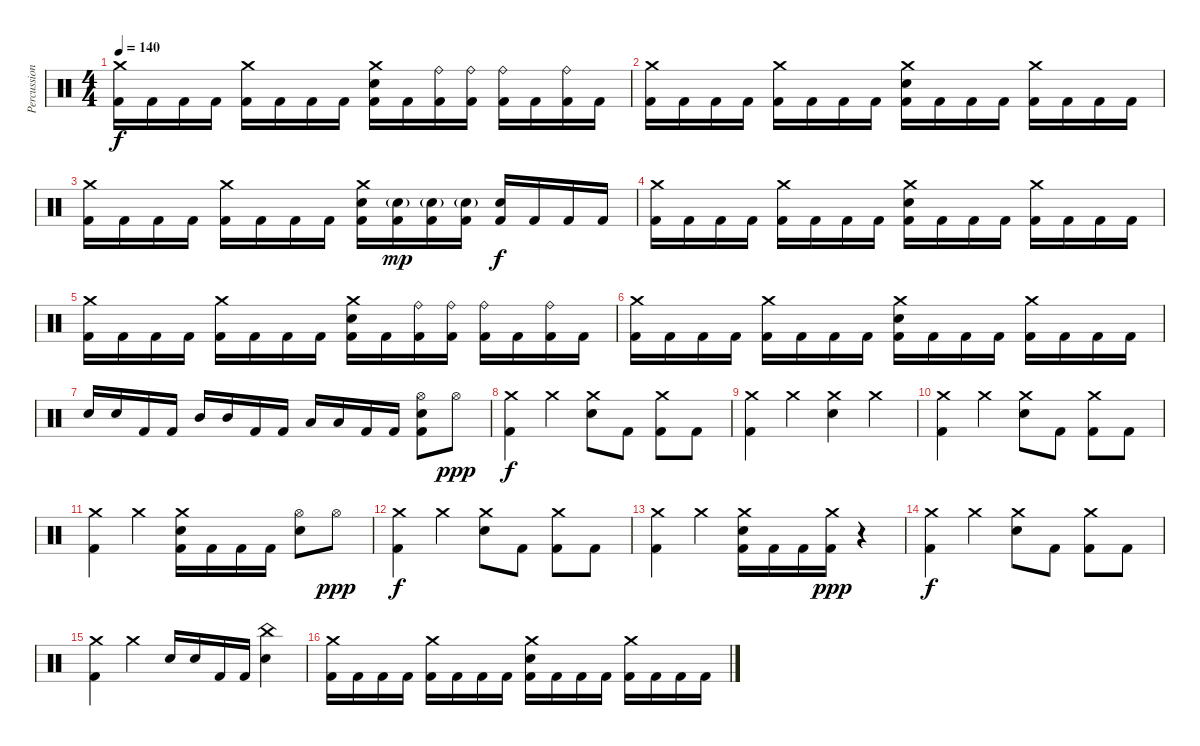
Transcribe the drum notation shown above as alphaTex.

\track ("Percussion" "Percussion") {instrument percussion}
\staff {score}
\articulation defaults
\ts (4 4)
\tempo 140
\clef neutral
\ks c
("Crash medium (hit)" "Kick (hit) 2").16{dy f} "Kick (hit) 2".16 "Kick (hit) 2".16 "Kick (hit) 2".16 ("Crash medium (hit)" "Kick (hit) 2").16 "Kick (hit) 2".16 "Kick (hit) 2".16 "Kick (hit) 2".16 ("Crash medium (hit)" "Electric Snare (hit)" "Kick (hit) 2").16 "Kick (hit) 2".16 ("Ride (bell)" "Kick (hit) 2").16 ("Ride (bell)" "Kick (hit) 2").16 ("Ride (bell)" "Kick (hit) 2").16 "Kick (hit) 2".16 ("Ride (bell)" "Kick (hit) 2").16 "Kick (hit) 2".16 |
("Crash medium (hit)" "Kick (hit) 2").16 "Kick (hit) 2".16 "Kick (hit) 2".16 "Kick (hit) 2".16 ("Crash medium (hit)" "Kick (hit) 2").16 "Kick (hit) 2".16 "Kick (hit) 2".16 "Kick (hit) 2".16 ("Crash medium (hit)" "Electric Snare (hit)" "Kick (hit) 2").16 "Kick (hit) 2".16 "Kick (hit) 2".16 "Kick (hit) 2".16 ("Crash medium (hit)" "Kick (hit) 2").16 "Kick (hit) 2".16 "Kick (hit) 2".16 "Kick (hit) 2".16 |
("Crash medium (hit)" "Kick (hit) 2").16 "Kick (hit) 2".16 "Kick (hit) 2".16 "Kick (hit) 2".16 ("Crash medium (hit)" "Kick (hit) 2").16 "Kick (hit) 2".16 "Kick (hit) 2".16 "Kick (hit) 2".16 ("Crash medium (hit)" "Electric Snare (hit)" "Kick (hit) 2").16 ("Electric Snare (hit)"{g} "Kick (hit) 2").16{dy mp} ("Electric Snare (hit)"{g} "Kick (hit) 2").16 ("Electric Snare (hit)"{g} "Kick (hit) 2").16 ("Electric Snare (hit)" "Kick (hit) 2").16{dy f} "Kick (hit) 2".16 "Kick (hit) 2".16 "Kick (hit) 2".16 |
("Crash medium (hit)" "Kick (hit) 2").16 "Kick (hit) 2".16 "Kick (hit) 2".16 "Kick (hit) 2".16 ("Crash medium (hit)" "Kick (hit) 2").16 "Kick (hit) 2".16 "Kick (hit) 2".16 "Kick (hit) 2".16 ("Crash medium (hit)" "Electric Snare (hit)" "Kick (hit) 2").16 "Kick (hit) 2".16 "Kick (hit) 2".16 "Kick (hit) 2".16 ("Crash medium (hit)" "Kick (hit) 2").16 "Kick (hit) 2".16 "Kick (hit) 2".16 "Kick (hit) 2".16 |
("Crash medium (hit)" "Kick (hit) 2").16 "Kick (hit) 2".16 "Kick (hit) 2".16 "Kick (hit) 2".16 ("Crash medium (hit)" "Kick (hit) 2").16 "Kick (hit) 2".16 "Kick (hit) 2".16 "Kick (hit) 2".16 ("Crash medium (hit)" "Electric Snare (hit)" "Kick (hit) 2").16 "Kick (hit) 2".16 ("Ride (bell)" "Kick (hit) 2").16 ("Ride (bell)" "Kick (hit) 2").16 ("Ride (bell)" "Kick (hit) 2").16 "Kick (hit) 2".16 ("Ride (bell)" "Kick (hit) 2").16 "Kick (hit) 2".16 |
("Crash medium (hit)" "Kick (hit) 2").16 "Kick (hit) 2".16 "Kick (hit) 2".16 "Kick (hit) 2".16 ("Crash medium (hit)" "Kick (hit) 2").16 "Kick (hit) 2".16 "Kick (hit) 2".16 "Kick (hit) 2".16 ("Crash medium (hit)" "Electric Snare (hit)" "Kick (hit) 2").16 "Kick (hit) 2".16 "Kick (hit) 2".16 "Kick (hit) 2".16 ("Crash medium (hit)" "Kick (hit) 2").16 "Kick (hit) 2".16 "Kick (hit) 2".16 "Kick (hit) 2".16 |
"Electric Snare (hit)".16 "Electric Snare (hit)".16 "Kick (hit) 2".16 "Kick (hit) 2".16 "Mid Tom (hit)".16 "Mid Tom (hit)".16 "Kick (hit) 2".16 "Kick (hit) 2".16 "Low Tom (hit)".16 "Low Tom (hit)".16 "Kick (hit) 2".16 "Kick (hit) 2".16 ("Hi-Hat (open)" "Electric Snare (hit)" "Kick (hit) 2").8 "Hi-Hat (open)".8{dy ppp} |
("Crash medium (hit)" "Kick (hit) 2").4{dy f} "Crash medium (hit)".4 ("Crash medium (hit)" "Electric Snare (hit)").8 "Kick (hit) 2".8 ("Crash medium (hit)" "Kick (hit) 2").8 "Kick (hit) 2".8 |
("Crash medium (hit)" "Kick (hit) 2").4 "Crash medium (hit)".4 ("Crash medium (hit)" "Electric Snare (hit)").4 "Crash medium (hit)".4 |
("Crash medium (hit)" "Kick (hit) 2").4 "Crash medium (hit)".4 ("Crash medium (hit)" "Electric Snare (hit)").8 "Kick (hit) 2".8 ("Crash medium (hit)" "Kick (hit) 2").8 "Kick (hit) 2".8 |
("Crash medium (hit)" "Kick (hit) 2").4 "Crash medium (hit)".4 ("Crash medium (hit)" "Electric Snare (hit)" "Kick (hit) 2").16 "Kick (hit) 2".16 "Kick (hit) 2".16 "Kick (hit) 2".16 ("Hi-Hat (open)" "Electric Snare (hit)").8 "Hi-Hat (open)".8{dy ppp} |
("Crash medium (hit)" "Kick (hit) 2").4{dy f} "Crash medium (hit)".4 ("Crash medium (hit)" "Electric Snare (hit)").8 "Kick (hit) 2".8 ("Crash medium (hit)" "Kick (hit) 2").8 "Kick (hit) 2".8 |
("Crash medium (hit)" "Kick (hit) 2").4 "Crash medium (hit)".4 ("Crash medium (hit)" "Electric Snare (hit)" "Kick (hit) 2").16 "Kick (hit) 2".16 "Kick (hit) 2".16 ("Crash medium (hit)" "Kick (hit) 2").16{dy ppp} r.4 |
("Crash medium (hit)" "Kick (hit) 2").4{dy f} "Crash medium (hit)".4 ("Crash medium (hit)" "Electric Snare (hit)").8 "Kick (hit) 2".8 ("Crash medium (hit)" "Kick (hit) 2").8 "Kick (hit) 2".8 |
("Crash medium (hit)" "Kick (hit) 2").4 "Crash medium (hit)".4 "Electric Snare (hit)".16 "Electric Snare (hit)".16 "Kick (hit) 2".16 "Kick (hit) 2".16 ("China (hit)" "Electric Snare (hit)").4 |
("Crash medium (hit)" "Kick (hit) 2").16 "Kick (hit) 2".16 "Kick (hit) 2".16 "Kick (hit) 2".16 ("Crash medium (hit)" "Kick (hit) 2").16 "Kick (hit) 2".16 "Kick (hit) 2".16 "Kick (hit) 2".16 ("Crash medium (hit)" "Electric Snare (hit)" "Kick (hit) 2").16 "Kick (hit) 2".16 "Kick (hit) 2".16 "Kick (hit) 2".16 ("Crash medium (hit)" "Kick (hit) 2").16 "Kick (hit) 2".16 "Kick (hit) 2".16 "Kick (hit) 2".16
